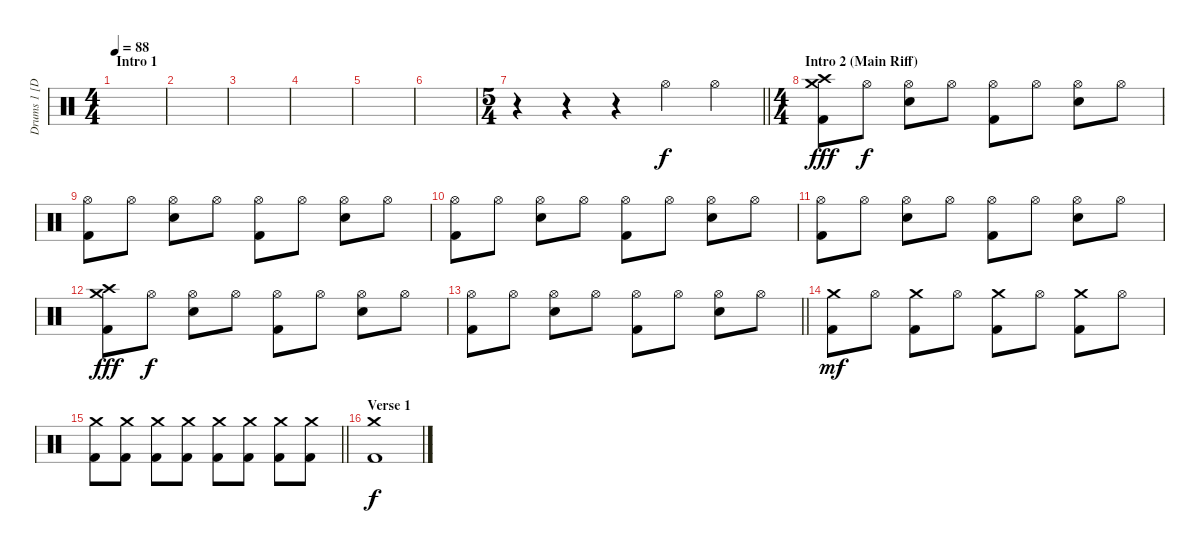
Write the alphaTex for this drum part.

\track ("Drums 1 [Doom]" "Drums 1 [D") {instrument percussion}
\staff {score}
\articulation defaults
\ts (4 4)
\section ("" "Intro 1")
\tempo 88
\clef neutral
\ks c
|
|
|
|
|
|
\ts (5 4)
\barLineRight lightlight
r.4 r.4 r.4 "Hi-Hat (open)".4 "Hi-Hat (open)".4 |
\ts (4 4)
\section ("" "Intro 2 (Main Riff)")
("Crash medium (hit)" "Crash high (hit)" "Kick (hit) 2").8{dy fff} "Hi-Hat (open)".8{dy f} ("Hi-Hat (open)" "Electric Snare (hit)").8 "Hi-Hat (open)".8 ("Hi-Hat (open)" "Kick (hit) 2").8 "Hi-Hat (open)".8 ("Hi-Hat (open)" "Electric Snare (hit)").8 "Hi-Hat (open)".8 |
("Hi-Hat (open)" "Kick (hit) 2").8 "Hi-Hat (open)".8 ("Hi-Hat (open)" "Electric Snare (hit)").8 "Hi-Hat (open)".8 ("Hi-Hat (open)" "Kick (hit) 2").8 "Hi-Hat (open)".8 ("Hi-Hat (open)" "Electric Snare (hit)").8 "Hi-Hat (open)".8 |
("Hi-Hat (open)" "Kick (hit) 2").8 "Hi-Hat (open)".8 ("Hi-Hat (open)" "Electric Snare (hit)").8 "Hi-Hat (open)".8 ("Hi-Hat (open)" "Kick (hit) 2").8 "Hi-Hat (open)".8 ("Hi-Hat (open)" "Electric Snare (hit)").8 "Hi-Hat (open)".8 |
("Hi-Hat (open)" "Kick (hit) 2").8 "Hi-Hat (open)".8 ("Hi-Hat (open)" "Electric Snare (hit)").8 "Hi-Hat (open)".8 ("Hi-Hat (open)" "Kick (hit) 2").8 "Hi-Hat (open)".8 ("Hi-Hat (open)" "Electric Snare (hit)").8 "Hi-Hat (open)".8 |
("Crash medium (hit)" "Crash high (hit)" "Kick (hit) 2").8{dy fff} "Hi-Hat (open)".8{dy f} ("Hi-Hat (open)" "Electric Snare (hit)").8 "Hi-Hat (open)".8 ("Hi-Hat (open)" "Kick (hit) 2").8 "Hi-Hat (open)".8 ("Hi-Hat (open)" "Electric Snare (hit)").8 "Hi-Hat (open)".8 |
\barLineRight lightlight
("Hi-Hat (open)" "Kick (hit) 2").8 "Hi-Hat (open)".8 ("Hi-Hat (open)" "Electric Snare (hit)").8 "Hi-Hat (open)".8 ("Hi-Hat (open)" "Kick (hit) 2").8 "Hi-Hat (open)".8 ("Hi-Hat (open)" "Electric Snare (hit)").8 "Hi-Hat (open)".8 |
("Crash medium (hit)" "Kick (hit) 2").8{dy mf} "Hi-Hat (open)".8 ("Crash medium (hit)" "Kick (hit) 2").8 "Hi-Hat (open)".8 ("Crash medium (hit)" "Kick (hit) 2").8 "Hi-Hat (open)".8 ("Crash medium (hit)" "Kick (hit) 2").8 "Hi-Hat (open)".8 |
\barLineRight lightlight
("Crash medium (hit)" "Kick (hit) 2").8 ("Crash medium (hit)" "Kick (hit) 2").8 ("Crash medium (hit)" "Kick (hit) 2").8 ("Crash medium (hit)" "Kick (hit) 2").8 ("Crash medium (hit)" "Kick (hit) 2").8 ("Crash medium (hit)" "Kick (hit) 2").8 ("Crash medium (hit)" "Kick (hit) 2").8 ("Crash medium (hit)" "Kick (hit) 2").8 |
\section ("" "Verse 1")
("Crash medium (hit)" "Kick (hit) 2").1{dy f}
